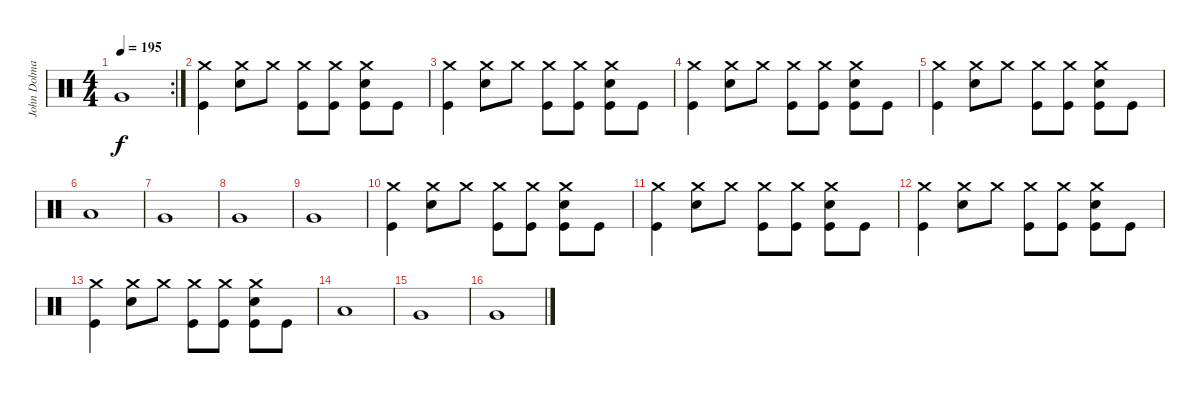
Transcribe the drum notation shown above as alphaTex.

\track ("John Dolmayan" "John Dolma") {instrument percussion}
\staff {score}
\articulation defaults
\rc 2
\ts (4 4)
\tempo 195
\clef neutral
\ks c "Very Low Tom (hit)".1{dy f}
|
("Crash medium (hit)" "Kick (hit)").4 ("Crash medium (hit)" "Snare (hit) 2").8 "Crash medium (hit)".8 ("Crash medium (hit)" "Kick (hit)").8 ("Crash medium (hit)" "Kick (hit)").8 ("Crash medium (hit)" "Snare (hit) 2" "Kick (hit)").8 "Kick (hit)".8 |
("Crash medium (hit)" "Kick (hit)").4 ("Crash medium (hit)" "Snare (hit) 2").8 "Crash medium (hit)".8 ("Crash medium (hit)" "Kick (hit)").8 ("Crash medium (hit)" "Kick (hit)").8 ("Crash medium (hit)" "Snare (hit) 2" "Kick (hit)").8 "Kick (hit)".8 |
("Crash medium (hit)" "Kick (hit)").4 ("Crash medium (hit)" "Snare (hit) 2").8 "Crash medium (hit)".8 ("Crash medium (hit)" "Kick (hit)").8 ("Crash medium (hit)" "Kick (hit)").8 ("Crash medium (hit)" "Snare (hit) 2" "Kick (hit)").8 "Kick (hit)".8 |
("Crash medium (hit)" "Kick (hit)").4 ("Crash medium (hit)" "Snare (hit) 2").8 "Crash medium (hit)".8 ("Crash medium (hit)" "Kick (hit)").8 ("Crash medium (hit)" "Kick (hit)").8 ("Crash medium (hit)" "Snare (hit) 2" "Kick (hit)").8 "Kick (hit)".8 |
"Low Floor Tom (hit)".1 |
"Very Low Tom (hit)".1 |
"Very Low Tom (hit)".1 |
"Very Low Tom (hit)".1 |
("Crash medium (hit)" "Kick (hit)").4 ("Crash medium (hit)" "Snare (hit) 2").8 "Crash medium (hit)".8 ("Crash medium (hit)" "Kick (hit)").8 ("Crash medium (hit)" "Kick (hit)").8 ("Crash medium (hit)" "Snare (hit) 2" "Kick (hit)").8 "Kick (hit)".8 |
("Crash medium (hit)" "Kick (hit)").4 ("Crash medium (hit)" "Snare (hit) 2").8 "Crash medium (hit)".8 ("Crash medium (hit)" "Kick (hit)").8 ("Crash medium (hit)" "Kick (hit)").8 ("Crash medium (hit)" "Snare (hit) 2" "Kick (hit)").8 "Kick (hit)".8 |
("Crash medium (hit)" "Kick (hit)").4 ("Crash medium (hit)" "Snare (hit) 2").8 "Crash medium (hit)".8 ("Crash medium (hit)" "Kick (hit)").8 ("Crash medium (hit)" "Kick (hit)").8 ("Crash medium (hit)" "Snare (hit) 2" "Kick (hit)").8 "Kick (hit)".8 |
("Crash medium (hit)" "Kick (hit)").4 ("Crash medium (hit)" "Snare (hit) 2").8 "Crash medium (hit)".8 ("Crash medium (hit)" "Kick (hit)").8 ("Crash medium (hit)" "Kick (hit)").8 ("Crash medium (hit)" "Snare (hit) 2" "Kick (hit)").8 "Kick (hit)".8 |
"Low Floor Tom (hit)".1 |
"Very Low Tom (hit)".1 |
"Very Low Tom (hit)".1
